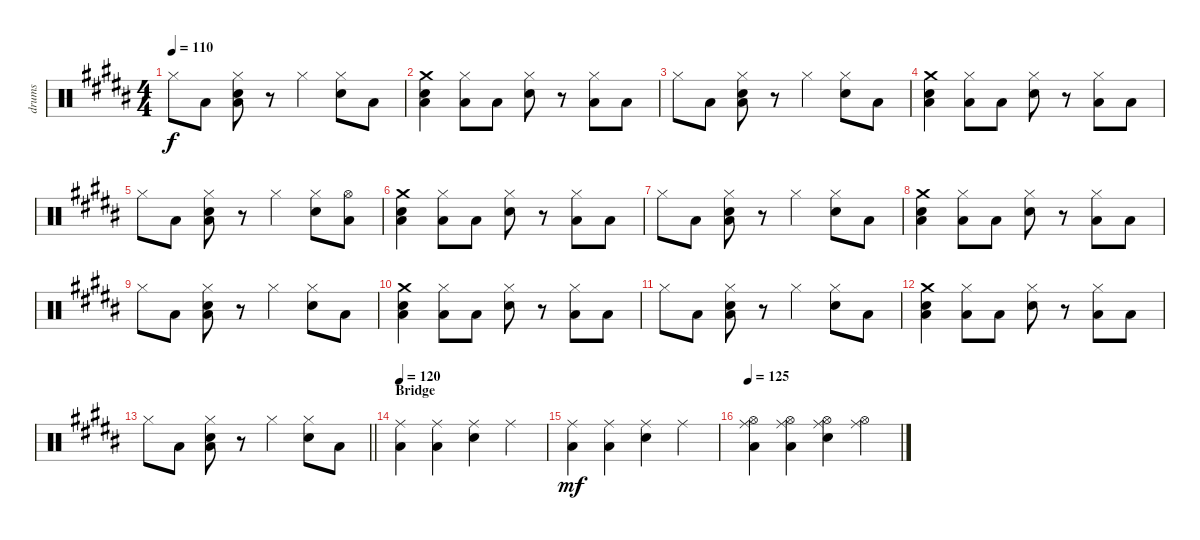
\track ("drums" "drums") {instrument percussion}
\staff {score}
\articulation defaults
\ts (4 4)
\tempo 110
\clef neutral
\ks b "Hi-Hat (closed)".8{dy f} "Low Floor Tom (hit)".8
("Hi-Hat (closed)" "Electric Snare (hit)" "Low Floor Tom (hit)").8 r.8 "Hi-Hat (closed)".4 ("Hi-Hat (closed)" "Electric Snare (hit)").8 "Low Floor Tom (hit)".8 |
("Crash medium (hit)" "Electric Snare (hit)" "Low Floor Tom (hit)").4 ("Hi-Hat (closed)" "Low Floor Tom (hit)").8 "Low Floor Tom (hit)".8 ("Hi-Hat (closed)" "Electric Snare (hit)").8 r.8 ("Hi-Hat (closed)" "Low Floor Tom (hit)").8 "Low Floor Tom (hit)".8 |
"Hi-Hat (closed)".8 "Low Floor Tom (hit)".8 ("Hi-Hat (closed)" "Electric Snare (hit)" "Low Floor Tom (hit)").8 r.8 "Hi-Hat (closed)".4 ("Hi-Hat (closed)" "Electric Snare (hit)").8 "Low Floor Tom (hit)".8 |
("Crash medium (hit)" "Electric Snare (hit)" "Low Floor Tom (hit)").4 ("Hi-Hat (closed)" "Low Floor Tom (hit)").8 "Low Floor Tom (hit)".8 ("Hi-Hat (closed)" "Electric Snare (hit)").8 r.8 ("Hi-Hat (closed)" "Low Floor Tom (hit)").8 "Low Floor Tom (hit)".8 |
"Hi-Hat (closed)".8 "Low Floor Tom (hit)".8 ("Hi-Hat (closed)" "Electric Snare (hit)" "Low Floor Tom (hit)").8 r.8 "Hi-Hat (closed)".4 ("Hi-Hat (closed)" "Electric Snare (hit)").8 ("Hi-Hat (open)" "Low Floor Tom (hit)").8 |
("Crash medium (hit)" "Electric Snare (hit)" "Low Floor Tom (hit)").4 ("Hi-Hat (closed)" "Low Floor Tom (hit)").8 "Low Floor Tom (hit)".8 ("Hi-Hat (closed)" "Electric Snare (hit)").8 r.8 ("Hi-Hat (closed)" "Low Floor Tom (hit)").8 "Low Floor Tom (hit)".8 |
"Hi-Hat (closed)".8 "Low Floor Tom (hit)".8 ("Hi-Hat (closed)" "Electric Snare (hit)" "Low Floor Tom (hit)").8 r.8 "Hi-Hat (closed)".4 ("Hi-Hat (closed)" "Electric Snare (hit)").8 "Low Floor Tom (hit)".8 |
("Crash medium (hit)" "Electric Snare (hit)" "Low Floor Tom (hit)").4 ("Hi-Hat (closed)" "Low Floor Tom (hit)").8 "Low Floor Tom (hit)".8 ("Hi-Hat (closed)" "Electric Snare (hit)").8 r.8 ("Hi-Hat (closed)" "Low Floor Tom (hit)").8 "Low Floor Tom (hit)".8 |
"Hi-Hat (closed)".8 "Low Floor Tom (hit)".8 ("Hi-Hat (closed)" "Electric Snare (hit)" "Low Floor Tom (hit)").8 r.8 "Hi-Hat (closed)".4 ("Hi-Hat (closed)" "Electric Snare (hit)").8 "Low Floor Tom (hit)".8 |
("Crash medium (hit)" "Electric Snare (hit)" "Low Floor Tom (hit)").4 ("Hi-Hat (closed)" "Low Floor Tom (hit)").8 "Low Floor Tom (hit)".8 ("Hi-Hat (closed)" "Electric Snare (hit)").8 r.8 ("Hi-Hat (closed)" "Low Floor Tom (hit)").8 "Low Floor Tom (hit)".8 |
"Hi-Hat (closed)".8 "Low Floor Tom (hit)".8 ("Hi-Hat (closed)" "Electric Snare (hit)" "Low Floor Tom (hit)").8 r.8 "Hi-Hat (closed)".4 ("Hi-Hat (closed)" "Electric Snare (hit)").8 "Low Floor Tom (hit)".8 |
("Crash medium (hit)" "Electric Snare (hit)" "Low Floor Tom (hit)").4 ("Hi-Hat (closed)" "Low Floor Tom (hit)").8 "Low Floor Tom (hit)".8 ("Hi-Hat (closed)" "Electric Snare (hit)").8 r.8 ("Hi-Hat (closed)" "Low Floor Tom (hit)").8 "Low Floor Tom (hit)".8 |
\barLineRight lightlight "Hi-Hat (closed)".8 "Low Floor Tom (hit)".8
("Hi-Hat (closed)" "Electric Snare (hit)" "Low Floor Tom (hit)").8 r.8 "Hi-Hat (closed)".4 ("Hi-Hat (closed)" "Electric Snare (hit)").8 "Low Floor Tom (hit)".8 |
\section ("" "Bridge")
\tempo 120
("Ride (middle)" "Low Floor Tom (hit)").4 ("Ride (middle)" "Low Floor Tom (hit)").4 ("Ride (middle)" "Electric Snare (hit)").4 "Ride (middle)".4 |
("Ride (middle)" "Low Floor Tom (hit)").4{dy mf} ("Ride (middle)" "Low Floor Tom (hit)").4 ("Ride (middle)" "Electric Snare (hit)").4 "Ride (middle)".4 |
\tempo 125
("Ride (middle)" "Hi-Hat (open)" "Low Floor Tom (hit)").4 ("Ride (middle)" "Hi-Hat (open)" "Low Floor Tom (hit)").4 ("Ride (middle)" "Hi-Hat (open)" "Electric Snare (hit)").4 ("Ride (middle)" "Hi-Hat (open)").4
